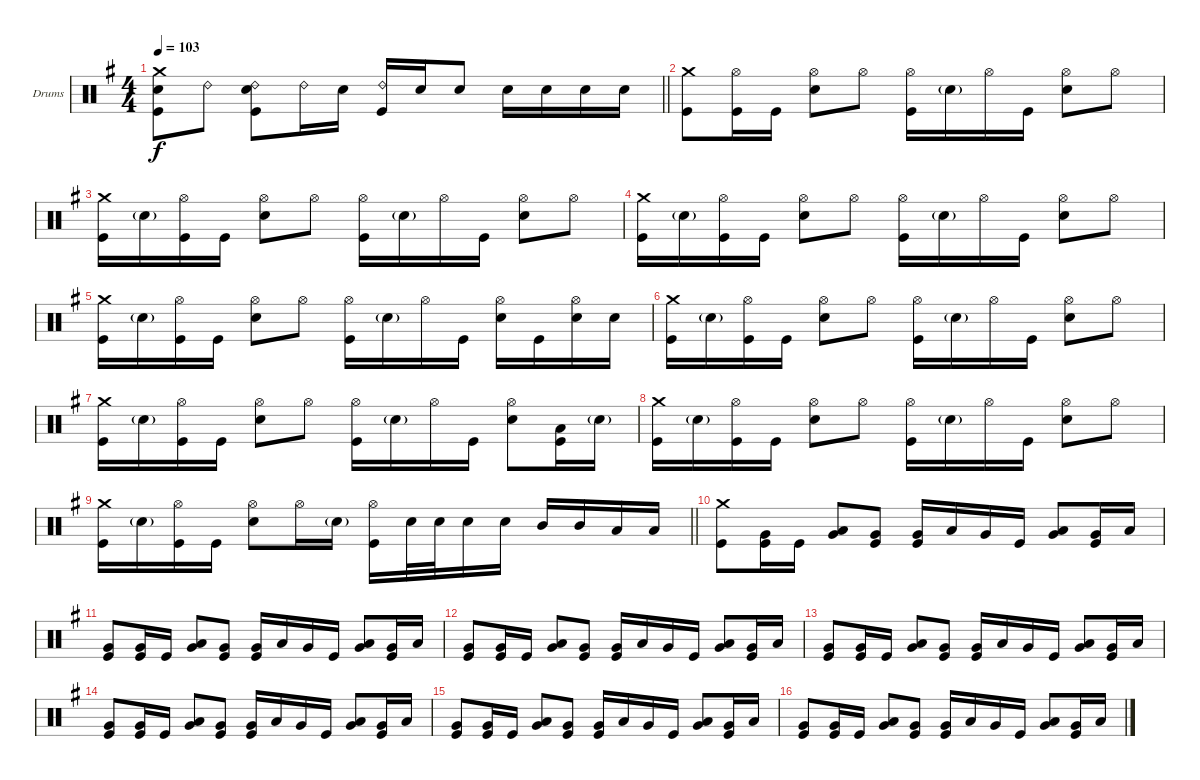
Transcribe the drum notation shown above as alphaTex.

\bracketExtendMode groupsimilarinstruments
\firstSystemTrackNameOrientation horizontal
\otherSystemsTrackNameOrientation horizontal
\track ("Drumkit" "Drums") {instrument percussion}
\staff {score}
\articulation defaults
\ts (4 4)
\tempo 103
\clef neutral
\barLineRight lightlight
\ks eminor
("Crash medium (hit)" "Snare (hit) 2" "Kick (hit)").8{dy f} "Ride (bell) 2".8 ("Ride (bell) 2" "Snare (hit) 2" "Kick (hit)").8 "Ride (bell) 2".16 "Snare (hit) 2".16 ("Ride (bell) 2" "Kick (hit)").16 "Snare (hit) 2".16 "Snare (hit) 2".8 "Snare (hit) 2".16 "Snare (hit) 2".16 "Snare (hit) 2".16 "Snare (hit) 2".16 |
("Crash medium (hit)" "Kick (hit)").8 ("Hi-Hat (open)" "Kick (hit)").16 "Kick (hit)".16 ("Hi-Hat (open)" "Snare (hit) 2").8 "Hi-Hat (open)".8 ("Hi-Hat (open)" "Kick (hit)").16 "Snare (hit) 2"{g}.16 "Hi-Hat (open)".16 "Kick (hit)".16 ("Hi-Hat (open)" "Snare (hit) 2").8 "Hi-Hat (open)".8 |
("Crash medium (hit)" "Kick (hit)").16 "Snare (hit) 2"{g}.16 ("Hi-Hat (open)" "Kick (hit)").16 "Kick (hit)".16 ("Hi-Hat (open)" "Snare (hit) 2").8 "Hi-Hat (open)".8 ("Hi-Hat (open)" "Kick (hit)").16 "Snare (hit) 2"{g}.16 "Hi-Hat (open)".16 "Kick (hit)".16 ("Hi-Hat (open)" "Snare (hit) 2").8 "Hi-Hat (open)".8 |
("Crash medium (hit)" "Kick (hit)").16 "Snare (hit) 2"{g}.16 ("Hi-Hat (open)" "Kick (hit)").16 "Kick (hit)".16 ("Hi-Hat (open)" "Snare (hit) 2").8 "Hi-Hat (open)".8 ("Hi-Hat (open)" "Kick (hit)").16 "Snare (hit) 2"{g}.16 "Hi-Hat (open)".16 "Kick (hit)".16 ("Hi-Hat (open)" "Snare (hit) 2").8 "Hi-Hat (open)".8 |
("Crash medium (hit)" "Kick (hit)").16 "Snare (hit) 2"{g}.16 ("Hi-Hat (open)" "Kick (hit)").16 "Kick (hit)".16 ("Hi-Hat (open)" "Snare (hit) 2").8 "Hi-Hat (open)".8 ("Hi-Hat (open)" "Kick (hit)").16 "Snare (hit) 2"{g}.16 "Hi-Hat (open)".16 "Kick (hit)".16 ("Hi-Hat (open)" "Snare (hit) 2").16 "Kick (hit)".16 ("Hi-Hat (open)" "Snare (hit) 2").16 "Snare (hit) 2".16 |
("Crash medium (hit)" "Kick (hit)").16 "Snare (hit) 2"{g}.16 ("Hi-Hat (open)" "Kick (hit)").16 "Kick (hit)".16 ("Hi-Hat (open)" "Snare (hit) 2").8 "Hi-Hat (open)".8 ("Hi-Hat (open)" "Kick (hit)").16 "Snare (hit) 2"{g}.16 "Hi-Hat (open)".16 "Kick (hit)".16 ("Hi-Hat (open)" "Snare (hit) 2").8 "Hi-Hat (open)".8 |
("Crash medium (hit)" "Kick (hit)").16 "Snare (hit) 2"{g}.16 ("Hi-Hat (open)" "Kick (hit)").16 "Kick (hit)".16 ("Hi-Hat (open)" "Snare (hit) 2").8 "Hi-Hat (open)".8 ("Hi-Hat (open)" "Kick (hit)").16 "Snare (hit) 2"{g}.16 "Hi-Hat (open)".16 "Kick (hit)".16 ("Hi-Hat (open)" "Snare (hit) 2").8 ("Low Tom (hit)" "Kick (hit)").16 "Snare (hit) 2"{g}.16 |
("Crash medium (hit)" "Kick (hit)").16 "Snare (hit) 2"{g}.16 ("Hi-Hat (open)" "Kick (hit)").16 "Kick (hit)".16 ("Hi-Hat (open)" "Snare (hit) 2").8 "Hi-Hat (open)".8 ("Hi-Hat (open)" "Kick (hit)").16 "Snare (hit) 2"{g}.16 "Hi-Hat (open)".16 "Kick (hit)".16 ("Hi-Hat (open)" "Snare (hit) 2").8 "Hi-Hat (open)".8 |
\barLineRight lightlight
("Crash medium (hit)" "Kick (hit)").16 "Snare (hit) 2"{g}.16 ("Hi-Hat (open)" "Kick (hit)").16 "Kick (hit)".16 ("Hi-Hat (open)" "Snare (hit) 2").8 "Hi-Hat (open)".16 "Snare (hit) 2"{g}.16 ("Hi-Hat (open)" "Kick (hit)").16 "Snare (hit) 2".32 "Snare (hit) 2".32 "Snare (hit) 2".16 "Snare (hit) 2".16 "Mid Tom (hit)".16 "Mid Tom (hit)".16 "Low Tom (hit)".16 "Low Tom (hit)".16 |
("Crash medium (hit)" "Kick (hit)").8 ("Very Low Tom (hit)" "Kick (hit)").16 "Kick (hit)".16 ("Low Tom (hit)" "Very Low Tom (hit)").8 ("Very Low Tom (hit)" "Kick (hit)").8 ("Very Low Tom (hit)" "Kick (hit)").16 "Low Tom (hit)".16 "Very Low Tom (hit)".16 "Kick (hit)".16 ("Low Tom (hit)" "Very Low Tom (hit)").8 ("Very Low Tom (hit)" "Kick (hit)").16 "Low Tom (hit)".16 |
("Very Low Tom (hit)" "Kick (hit)").8 ("Very Low Tom (hit)" "Kick (hit)").16 "Kick (hit)".16 ("Low Tom (hit)" "Very Low Tom (hit)").8 ("Very Low Tom (hit)" "Kick (hit)").8 ("Very Low Tom (hit)" "Kick (hit)").16 "Low Tom (hit)".16 "Very Low Tom (hit)".16 "Kick (hit)".16 ("Low Tom (hit)" "Very Low Tom (hit)").8 ("Very Low Tom (hit)" "Kick (hit)").16 "Low Tom (hit)".16 |
("Very Low Tom (hit)" "Kick (hit)").8 ("Very Low Tom (hit)" "Kick (hit)").16 "Kick (hit)".16 ("Low Tom (hit)" "Very Low Tom (hit)").8 ("Very Low Tom (hit)" "Kick (hit)").8 ("Very Low Tom (hit)" "Kick (hit)").16 "Low Tom (hit)".16 "Very Low Tom (hit)".16 "Kick (hit)".16 ("Low Tom (hit)" "Very Low Tom (hit)").8 ("Very Low Tom (hit)" "Kick (hit)").16 "Low Tom (hit)".16 |
("Very Low Tom (hit)" "Kick (hit)").8 ("Very Low Tom (hit)" "Kick (hit)").16 "Kick (hit)".16 ("Low Tom (hit)" "Very Low Tom (hit)").8 ("Very Low Tom (hit)" "Kick (hit)").8 ("Very Low Tom (hit)" "Kick (hit)").16 "Low Tom (hit)".16 "Very Low Tom (hit)".16 "Kick (hit)".16 ("Low Tom (hit)" "Very Low Tom (hit)").8 ("Very Low Tom (hit)" "Kick (hit)").16 "Low Tom (hit)".16 |
("Very Low Tom (hit)" "Kick (hit)").8 ("Very Low Tom (hit)" "Kick (hit)").16 "Kick (hit)".16 ("Low Tom (hit)" "Very Low Tom (hit)").8 ("Very Low Tom (hit)" "Kick (hit)").8 ("Very Low Tom (hit)" "Kick (hit)").16 "Low Tom (hit)".16 "Very Low Tom (hit)".16 "Kick (hit)".16 ("Low Tom (hit)" "Very Low Tom (hit)").8 ("Very Low Tom (hit)" "Kick (hit)").16 "Low Tom (hit)".16 |
("Very Low Tom (hit)" "Kick (hit)").8 ("Very Low Tom (hit)" "Kick (hit)").16 "Kick (hit)".16 ("Low Tom (hit)" "Very Low Tom (hit)").8 ("Very Low Tom (hit)" "Kick (hit)").8 ("Very Low Tom (hit)" "Kick (hit)").16 "Low Tom (hit)".16 "Very Low Tom (hit)".16 "Kick (hit)".16 ("Low Tom (hit)" "Very Low Tom (hit)").8 ("Very Low Tom (hit)" "Kick (hit)").16 "Low Tom (hit)".16 |
("Very Low Tom (hit)" "Kick (hit)").8 ("Very Low Tom (hit)" "Kick (hit)").16 "Kick (hit)".16 ("Low Tom (hit)" "Very Low Tom (hit)").8 ("Very Low Tom (hit)" "Kick (hit)").8 ("Very Low Tom (hit)" "Kick (hit)").16 "Low Tom (hit)".16 "Very Low Tom (hit)".16 "Kick (hit)".16 ("Low Tom (hit)" "Very Low Tom (hit)").8 ("Very Low Tom (hit)" "Kick (hit)").16 "Low Tom (hit)".16
